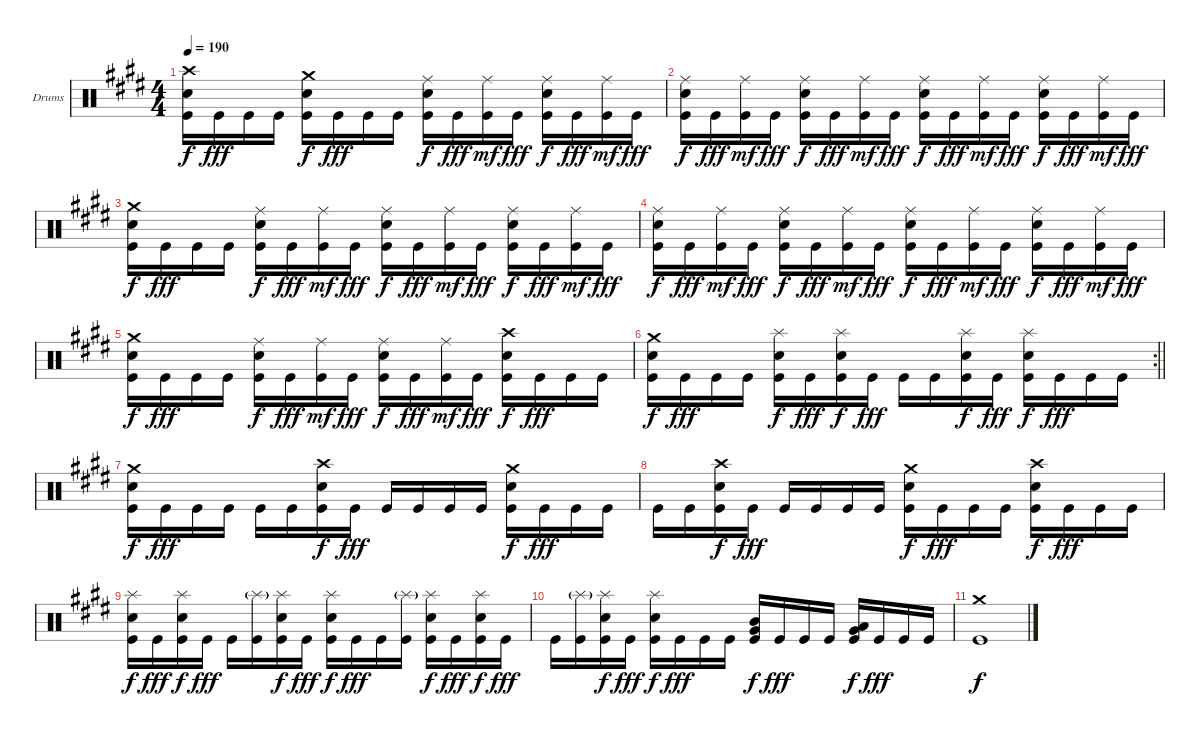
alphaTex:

\bracketExtendMode groupsimilarinstruments
\firstSystemTrackNameOrientation horizontal
\otherSystemsTrackNameOrientation horizontal
\track ("Drumkit" "Drums") {instrument percussion}
\staff {score}
\articulation defaults
\ts (4 4)
\tempo 190
\clef neutral
\ks c#minor
("Crash high (hit)" "Snare (hit) 2" "Kick (hit)").16{dy f} "Kick (hit)".16{dy fff} "Kick (hit)".16 "Kick (hit)".16 ("Crash medium (hit)" "Snare (hit) 2" "Kick (hit)").16{dy f} "Kick (hit)".16{dy fff} "Kick (hit)".16 "Kick (hit)".16 ("Ride (middle)" "Snare (hit) 2" "Kick (hit)").16{dy f} "Kick (hit)".16{dy fff} ("Ride (middle)" "Kick (hit)").16{dy mf} "Kick (hit)".16{dy fff} ("Ride (middle)" "Snare (hit) 2" "Kick (hit)").16{dy f} "Kick (hit)".16{dy fff} ("Ride (middle)" "Kick (hit)").16{dy mf} "Kick (hit)".16{dy fff} |
("Ride (middle)" "Snare (hit) 2" "Kick (hit)").16{dy f} "Kick (hit)".16{dy fff} ("Ride (middle)" "Kick (hit)").16{dy mf} "Kick (hit)".16{dy fff} ("Ride (middle)" "Snare (hit) 2" "Kick (hit)").16{dy f} "Kick (hit)".16{dy fff} ("Ride (middle)" "Kick (hit)").16{dy mf} "Kick (hit)".16{dy fff} ("Ride (middle)" "Snare (hit) 2" "Kick (hit)").16{dy f} "Kick (hit)".16{dy fff} ("Ride (middle)" "Kick (hit)").16{dy mf} "Kick (hit)".16{dy fff} ("Ride (middle)" "Snare (hit) 2" "Kick (hit)").16{dy f} "Kick (hit)".16{dy fff} ("Ride (middle)" "Kick (hit)").16{dy mf} "Kick (hit)".16{dy fff} |
("Crash medium (hit)" "Snare (hit) 2" "Kick (hit)").16{dy f} "Kick (hit)".16{dy fff} "Kick (hit)".16 "Kick (hit)".16 ("Ride (middle)" "Snare (hit) 2" "Kick (hit)").16{dy f} "Kick (hit)".16{dy fff} ("Ride (middle)" "Kick (hit)").16{dy mf} "Kick (hit)".16{dy fff} ("Ride (middle)" "Snare (hit) 2" "Kick (hit)").16{dy f} "Kick (hit)".16{dy fff} ("Ride (middle)" "Kick (hit)").16{dy mf} "Kick (hit)".16{dy fff} ("Ride (middle)" "Snare (hit) 2" "Kick (hit)").16{dy f} "Kick (hit)".16{dy fff} ("Ride (middle)" "Kick (hit)").16{dy mf} "Kick (hit)".16{dy fff} |
("Ride (middle)" "Snare (hit) 2" "Kick (hit)").16{dy f} "Kick (hit)".16{dy fff} ("Ride (middle)" "Kick (hit)").16{dy mf} "Kick (hit)".16{dy fff} ("Ride (middle)" "Snare (hit) 2" "Kick (hit)").16{dy f} "Kick (hit)".16{dy fff} ("Ride (middle)" "Kick (hit)").16{dy mf} "Kick (hit)".16{dy fff} ("Ride (middle)" "Snare (hit) 2" "Kick (hit)").16{dy f} "Kick (hit)".16{dy fff} ("Ride (middle)" "Kick (hit)").16{dy mf} "Kick (hit)".16{dy fff} ("Ride (middle)" "Snare (hit) 2" "Kick (hit)").16{dy f} "Kick (hit)".16{dy fff} ("Ride (middle)" "Kick (hit)").16{dy mf} "Kick (hit)".16{dy fff} |
("Crash medium (hit)" "Snare (hit) 2" "Kick (hit)").16{dy f} "Kick (hit)".16{dy fff} "Kick (hit)".16 "Kick (hit)".16 ("Ride (middle)" "Snare (hit) 2" "Kick (hit)").16{dy f} "Kick (hit)".16{dy fff} ("Ride (middle)" "Kick (hit)").16{dy mf} "Kick (hit)".16{dy fff} ("Ride (middle)" "Snare (hit) 2" "Kick (hit)").16{dy f} "Kick (hit)".16{dy fff} ("Ride (middle)" "Kick (hit)").16{dy mf} "Kick (hit)".16{dy fff} ("Crash high (hit)" "Snare (hit) 2" "Kick (hit)").16{dy f} "Kick (hit)".16{dy fff} "Kick (hit)".16 "Kick (hit)".16 |
\rc 2
\barLineRight lightlight
("Crash medium (hit)" "Snare (hit) 2" "Kick (hit)").16{dy f} "Kick (hit)".16{dy fff} "Kick (hit)".16 "Kick (hit)".16 ("Splash (hit)" "Snare (hit) 2" "Kick (hit)").16{dy f} "Kick (hit)".16{dy fff} ("Splash (hit)" "Snare (hit) 2" "Kick (hit)").16{dy f} "Kick (hit)".16{dy fff} "Kick (hit)".16 "Kick (hit)".16 ("Splash (hit)" "Snare (hit) 2" "Kick (hit)").16{dy f} "Kick (hit)".16{dy fff} ("Splash (hit)" "Snare (hit) 2" "Kick (hit)").16{dy f} "Kick (hit)".16{dy fff} "Kick (hit)".16 "Kick (hit)".16 |
("Crash medium (hit)" "Snare (hit) 2" "Kick (hit)").16{dy f} "Kick (hit)".16{dy fff} "Kick (hit)".16 "Kick (hit)".16 "Kick (hit)".16 "Kick (hit)".16 ("Crash high (hit)" "Snare (hit) 2" "Kick (hit)").16{dy f} "Kick (hit)".16{dy fff} "Kick (hit)".16 "Kick (hit)".16 "Kick (hit)".16 "Kick (hit)".16 ("Crash medium (hit)" "Snare (hit) 2" "Kick (hit)").16{dy f} "Kick (hit)".16{dy fff} "Kick (hit)".16 "Kick (hit)".16 |
"Kick (hit)".16 "Kick (hit)".16 ("Crash high (hit)" "Snare (hit) 2" "Kick (hit)").16{dy f} "Kick (hit)".16{dy fff} "Kick (hit)".16 "Kick (hit)".16 "Kick (hit)".16 "Kick (hit)".16 ("Crash medium (hit)" "Snare (hit) 2" "Kick (hit)").16{dy f} "Kick (hit)".16{dy fff} "Kick (hit)".16 "Kick (hit)".16 ("Crash high (hit)" "Snare (hit) 2" "Kick (hit)").16{dy f} "Kick (hit)".16{dy fff} "Kick (hit)".16 "Kick (hit)".16 |
("Splash (hit)" "Snare (hit) 2" "Kick (hit)").16{dy f} "Kick (hit)".16{dy fff} ("Splash (hit)" "Snare (hit) 2" "Kick (hit)").16{dy f} "Kick (hit)".16{dy fff} "Kick (hit)".16 ("Splash (hit)"{g} "Kick (hit)").16 ("Splash (hit)" "Snare (hit) 2" "Kick (hit)").16{dy f} "Kick (hit)".16{dy fff} ("Splash (hit)" "Snare (hit) 2" "Kick (hit)").16{dy f} "Kick (hit)".16{dy fff} "Kick (hit)".16 ("Splash (hit)"{g} "Kick (hit)").16 ("Splash (hit)" "Snare (hit) 2" "Kick (hit)").16{dy f} "Kick (hit)".16{dy fff} ("Splash (hit)" "Snare (hit) 2" "Kick (hit)").16{dy f} "Kick (hit)".16{dy fff} |
"Kick (hit)".16 ("Splash (hit)"{g} "Kick (hit)").16 ("Splash (hit)" "Snare (hit) 2" "Kick (hit)").16{dy f} "Kick (hit)".16{dy fff} ("Splash (hit)" "Snare (hit) 2" "Kick (hit)").16{dy f} "Kick (hit)".16{dy fff} "Kick (hit)".16 "Kick (hit)".16 ("Mid Tom (hit)" "Very Low Tom (hit)" "Kick (hit)").16{dy f} "Kick (hit)".16{dy fff} "Kick (hit)".16 "Kick (hit)".16 ("Low Tom (hit)" "Very Low Tom (hit)" "Kick (hit)").16{dy f} "Kick (hit)".16{dy fff} "Kick (hit)".16 "Kick (hit)".16 |
("Crash medium (hit)" "Kick (hit)").1{dy f}
